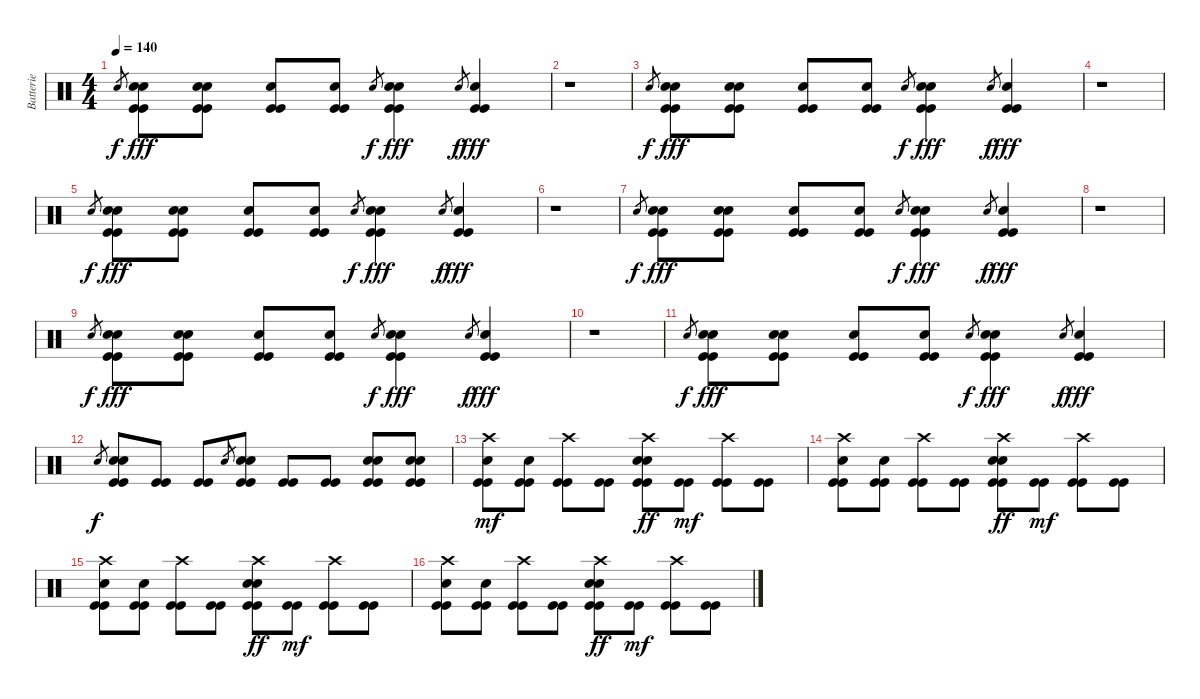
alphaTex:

\track ("Batterie " "Batterie ") {instrument percussion}
\staff {score}
\articulation defaults
\ts (4 4)
\tempo 140
\clef neutral
\ks c "Electric Snare (hit)".8{gr dy f}
("Kick (hit)" "Kick (hit)" "Snare (hit) 2" "Electric Snare (hit)").8{dy fff} ("Kick (hit)" "Kick (hit)" "Snare (hit) 2" "Electric Snare (hit)").8 ("Kick (hit)" "Kick (hit)" "Snare (hit) 2").8 ("Kick (hit)" "Kick (hit)" "Snare (hit) 2").8 "Electric Snare (hit)".8{gr dy f} ("Kick (hit)" "Kick (hit)" "Snare (hit) 2" "Electric Snare (hit)").4{dy fff} "Snare (hit) 2".8{gr dy f} ("Kick (hit)" "Kick (hit)" "Snare (hit) 2").4{dy fff} |
r.1 |
"Electric Snare (hit)".8{gr dy f} ("Kick (hit)" "Kick (hit)" "Snare (hit) 2" "Electric Snare (hit)").8{dy fff} ("Kick (hit)" "Kick (hit)" "Snare (hit) 2" "Electric Snare (hit)").8 ("Kick (hit)" "Kick (hit)" "Snare (hit) 2").8 ("Kick (hit)" "Kick (hit)" "Snare (hit) 2").8 "Electric Snare (hit)".8{gr dy f} ("Kick (hit)" "Kick (hit)" "Snare (hit) 2" "Electric Snare (hit)").4{dy fff} "Snare (hit) 2".8{gr dy f} ("Kick (hit)" "Kick (hit)" "Snare (hit) 2").4{dy fff} |
r.1 |
"Electric Snare (hit)".8{gr dy f} ("Kick (hit)" "Kick (hit)" "Snare (hit) 2" "Electric Snare (hit)").8{dy fff} ("Kick (hit)" "Kick (hit)" "Snare (hit) 2" "Electric Snare (hit)").8 ("Kick (hit)" "Kick (hit)" "Snare (hit) 2").8 ("Kick (hit)" "Kick (hit)" "Snare (hit) 2").8 "Electric Snare (hit)".8{gr dy f} ("Kick (hit)" "Kick (hit)" "Snare (hit) 2" "Electric Snare (hit)").4{dy fff} "Snare (hit) 2".8{gr dy f} ("Kick (hit)" "Kick (hit)" "Snare (hit) 2").4{dy fff} |
r.1 |
"Electric Snare (hit)".8{gr dy f} ("Kick (hit)" "Kick (hit)" "Snare (hit) 2" "Electric Snare (hit)").8{dy fff} ("Kick (hit)" "Kick (hit)" "Snare (hit) 2" "Electric Snare (hit)").8 ("Kick (hit)" "Kick (hit)" "Snare (hit) 2").8 ("Kick (hit)" "Kick (hit)" "Snare (hit) 2").8 "Electric Snare (hit)".8{gr dy f} ("Kick (hit)" "Kick (hit)" "Snare (hit) 2" "Electric Snare (hit)").4{dy fff} "Snare (hit) 2".8{gr dy f} ("Kick (hit)" "Kick (hit)" "Snare (hit) 2").4{dy fff} |
r.1 |
"Electric Snare (hit)".8{gr dy f} ("Kick (hit)" "Kick (hit)" "Snare (hit) 2" "Electric Snare (hit)").8{dy fff} ("Kick (hit)" "Kick (hit)" "Snare (hit) 2" "Electric Snare (hit)").8 ("Kick (hit)" "Kick (hit)" "Snare (hit) 2").8 ("Kick (hit)" "Kick (hit)" "Snare (hit) 2").8 "Electric Snare (hit)".8{gr dy f} ("Kick (hit)" "Kick (hit)" "Snare (hit) 2" "Electric Snare (hit)").4{dy fff} "Snare (hit) 2".8{gr dy f} ("Kick (hit)" "Kick (hit)" "Snare (hit) 2").4{dy fff} |
r.1 |
"Electric Snare (hit)".8{gr dy f} ("Kick (hit)" "Kick (hit)" "Snare (hit) 2" "Electric Snare (hit)").8{dy fff} ("Kick (hit)" "Kick (hit)" "Snare (hit) 2" "Electric Snare (hit)").8 ("Kick (hit)" "Kick (hit)" "Snare (hit) 2").8 ("Kick (hit)" "Kick (hit)" "Snare (hit) 2").8 "Electric Snare (hit)".8{gr dy f} ("Kick (hit)" "Kick (hit)" "Snare (hit) 2" "Electric Snare (hit)").4{dy fff} "Snare (hit) 2".8{gr dy f} ("Kick (hit)" "Kick (hit)" "Snare (hit) 2").4{dy fff} |
"Electric Snare (hit)".8{gr dy f} ("Kick (hit)" "Kick (hit)" "Electric Snare (hit)" "Electric Snare (hit)").8 ("Kick (hit)" "Kick (hit)").8 ("Kick (hit)" "Kick (hit)").8 "Electric Snare (hit)".8{gr} ("Kick (hit)" "Kick (hit)" "Electric Snare (hit)" "Electric Snare (hit)").8 ("Kick (hit)" "Kick (hit)").8 ("Kick (hit)" "Kick (hit)").8 ("Kick (hit)" "Kick (hit)" "Electric Snare (hit)" "Electric Snare (hit)").8 ("Kick (hit)" "Kick (hit)" "Electric Snare (hit)" "Electric Snare (hit)").8 |
\section ("" "")
("Kick (hit)" "Kick (hit)" "Snare (hit) 2" "Crash high (hit)").8{dy mf} ("Kick (hit)" "Kick (hit)" "Snare (hit) 2").8 ("Kick (hit)" "Kick (hit)" "Crash high (hit)").8 ("Kick (hit)" "Kick (hit)").8 ("Kick (hit)" "Kick (hit)" "Electric Snare (hit)" "Electric Snare (hit)" "Crash high (hit)").8{dy ff} ("Kick (hit)" "Kick (hit)").8{dy mf} ("Kick (hit)" "Kick (hit)" "Crash high (hit)").8 ("Kick (hit)" "Kick (hit)").8 |
("Kick (hit)" "Kick (hit)" "Snare (hit) 2" "Crash high (hit)").8 ("Kick (hit)" "Kick (hit)" "Snare (hit) 2").8 ("Kick (hit)" "Kick (hit)" "Crash high (hit)").8 ("Kick (hit)" "Kick (hit)").8 ("Kick (hit)" "Kick (hit)" "Electric Snare (hit)" "Electric Snare (hit)" "Crash high (hit)").8{dy ff} ("Kick (hit)" "Kick (hit)").8{dy mf} ("Kick (hit)" "Kick (hit)" "Crash high (hit)").8 ("Kick (hit)" "Kick (hit)").8 |
("Kick (hit)" "Kick (hit)" "Snare (hit) 2" "Crash high (hit)").8 ("Kick (hit)" "Kick (hit)" "Snare (hit) 2").8 ("Kick (hit)" "Kick (hit)" "Crash high (hit)").8 ("Kick (hit)" "Kick (hit)").8 ("Kick (hit)" "Kick (hit)" "Electric Snare (hit)" "Electric Snare (hit)" "Crash high (hit)").8{dy ff} ("Kick (hit)" "Kick (hit)").8{dy mf} ("Kick (hit)" "Kick (hit)" "Crash high (hit)").8 ("Kick (hit)" "Kick (hit)").8 |
("Kick (hit)" "Kick (hit)" "Snare (hit) 2" "Crash high (hit)").8 ("Kick (hit)" "Kick (hit)" "Snare (hit) 2").8 ("Kick (hit)" "Kick (hit)" "Crash high (hit)").8 ("Kick (hit)" "Kick (hit)").8 ("Kick (hit)" "Kick (hit)" "Electric Snare (hit)" "Electric Snare (hit)" "Crash high (hit)").8{dy ff} ("Kick (hit)" "Kick (hit)").8{dy mf} ("Kick (hit)" "Kick (hit)" "Crash high (hit)").8 ("Kick (hit)" "Kick (hit)").8
